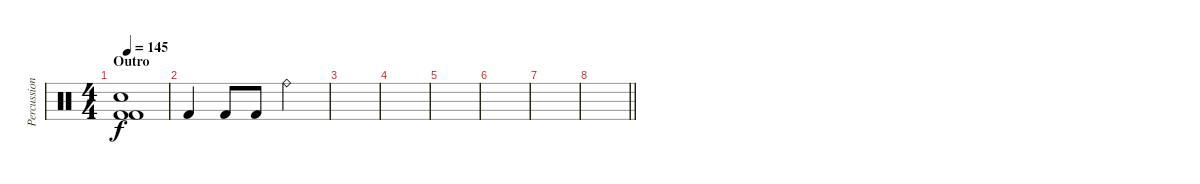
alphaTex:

\track ("Percussion" "Percussion") {instrument percussion}
\staff {score}
\articulation defaults
\ts (4 4)
\section ("" "Outro")
\tempo 145
\clef neutral
\ks c
("Kick (hit) 2" "Electric Snare (hit)" "Kick (hit) 2").1{dy f} |
"Kick (hit) 2".4 "Kick (hit) 2".8 "Kick (hit) 2".8 "Ride (bell)".2 |
|
|
|
|
|
\barLineRight lightlight
